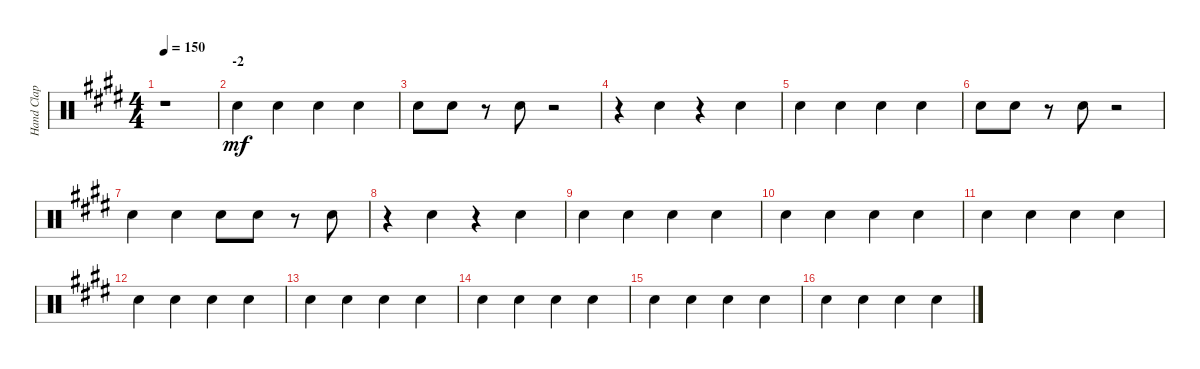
\track ("Hand Clap" "Hand Clap") {instrument percussion}
\staff {score}
\articulation defaults
\ts (4 4)
\tempo 150
\clef neutral
\ks e
r.1{dy mf} |
\section ("" "-2")
"Hand Clap (hit)".4 "Hand Clap (hit)".4 "Hand Clap (hit)".4 "Hand Clap (hit)".4 |
"Hand Clap (hit)".8 "Hand Clap (hit)".8 r.8 "Hand Clap (hit)".8 r.2 |
r.4 "Hand Clap (hit)".4 r.4 "Hand Clap (hit)".4 |
"Hand Clap (hit)".4 "Hand Clap (hit)".4 "Hand Clap (hit)".4 "Hand Clap (hit)".4 |
"Hand Clap (hit)".8 "Hand Clap (hit)".8 r.8 "Hand Clap (hit)".8 r.2 |
"Hand Clap (hit)".4 "Hand Clap (hit)".4 "Hand Clap (hit)".8 "Hand Clap (hit)".8 r.8 "Hand Clap (hit)".8 |
r.4 "Hand Clap (hit)".4 r.4 "Hand Clap (hit)".4 |
"Hand Clap (hit)".4 "Hand Clap (hit)".4 "Hand Clap (hit)".4 "Hand Clap (hit)".4 |
"Hand Clap (hit)".4 "Hand Clap (hit)".4 "Hand Clap (hit)".4 "Hand Clap (hit)".4 |
"Hand Clap (hit)".4 "Hand Clap (hit)".4 "Hand Clap (hit)".4 "Hand Clap (hit)".4 |
"Hand Clap (hit)".4 "Hand Clap (hit)".4 "Hand Clap (hit)".4 "Hand Clap (hit)".4 |
"Hand Clap (hit)".4 "Hand Clap (hit)".4 "Hand Clap (hit)".4 "Hand Clap (hit)".4 |
"Hand Clap (hit)".4 "Hand Clap (hit)".4 "Hand Clap (hit)".4 "Hand Clap (hit)".4 |
"Hand Clap (hit)".4 "Hand Clap (hit)".4 "Hand Clap (hit)".4 "Hand Clap (hit)".4 |
"Hand Clap (hit)".4 "Hand Clap (hit)".4 "Hand Clap (hit)".4 "Hand Clap (hit)".4
